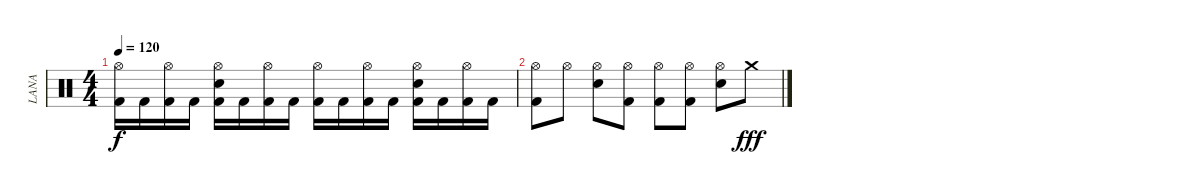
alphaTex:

\track ("LANA" "LANA") {instrument percussion}
\staff {score}
\articulation defaults
\ts (4 4)
\tempo 120
\clef neutral
\ks c
("Hi-Hat (open)" "Kick (hit) 2").16{dy f volume 0} "Kick (hit) 2".16 ("Hi-Hat (open)" "Kick (hit) 2").16 "Kick (hit) 2".16 ("Hi-Hat (open)" "Electric Snare (hit)" "Kick (hit) 2").16 "Kick (hit) 2".16 ("Hi-Hat (open)" "Kick (hit) 2").16 "Kick (hit) 2".16 ("Hi-Hat (open)" "Kick (hit) 2").16 "Kick (hit) 2".16 ("Hi-Hat (open)" "Kick (hit) 2").16 "Kick (hit) 2".16 ("Hi-Hat (open)" "Electric Snare (hit)" "Kick (hit) 2").16 "Kick (hit) 2".16 ("Hi-Hat (open)" "Kick (hit) 2").16 "Kick (hit) 2".16 |
("Hi-Hat (open)" "Kick (hit) 2").8 "Hi-Hat (open)".8 ("Hi-Hat (open)" "Electric Snare (hit)").8 ("Hi-Hat (open)" "Kick (hit) 2").8 ("Hi-Hat (open)" "Kick (hit) 2").8 ("Hi-Hat (open)" "Kick (hit) 2").8 ("Hi-Hat (open)" "Electric Snare (hit)").8 "Crash medium (hit)".8{dy fff}
